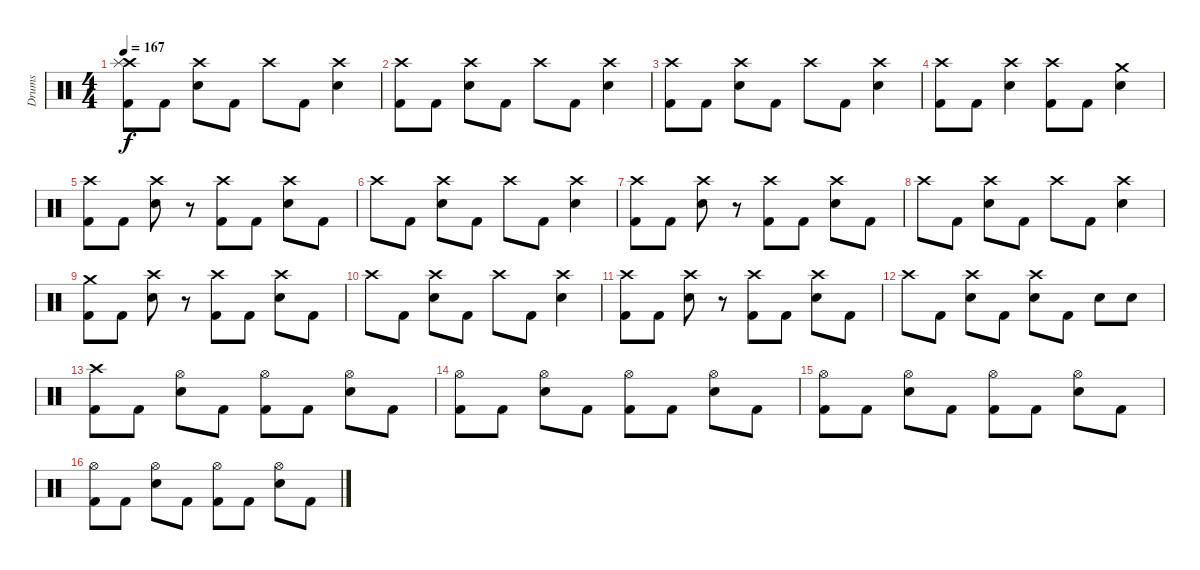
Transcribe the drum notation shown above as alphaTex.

\track ("Drums" "Drums") {instrument percussion}
\staff {score}
\articulation defaults
\ts (4 4)
\tempo 167
\clef neutral
\ks c
("Crash high (hit)" "Splash (hit)" "Kick (hit) 2").8{dy f} "Kick (hit) 2".8 ("Crash high (hit)" "Snare (hit) 2").8 "Kick (hit) 2".8 "Crash high (hit)".8 "Kick (hit) 2".8 ("Crash high (hit)" "Snare (hit) 2").4 |
("Crash high (hit)" "Kick (hit) 2").8 "Kick (hit) 2".8 ("Crash high (hit)" "Snare (hit) 2").8 "Kick (hit) 2".8 "Crash high (hit)".8 "Kick (hit) 2".8 ("Crash high (hit)" "Snare (hit) 2").4 |
("Crash high (hit)" "Kick (hit) 2").8 "Kick (hit) 2".8 ("Crash high (hit)" "Snare (hit) 2").8 "Kick (hit) 2".8 "Crash high (hit)".8 "Kick (hit) 2".8 ("Crash high (hit)" "Snare (hit) 2").4 |
("Crash high (hit)" "Kick (hit) 2").8 "Kick (hit) 2".8 ("Crash high (hit)" "Snare (hit) 2").4 ("Crash high (hit)" "Kick (hit) 2").8 "Kick (hit) 2".8 ("Crash medium (hit)" "Snare (hit) 2").4 |
("Crash high (hit)" "Kick (hit) 2").8 "Kick (hit) 2".8 ("Crash high (hit)" "Snare (hit) 2").8 r.8 ("Crash high (hit)" "Kick (hit) 2").8 "Kick (hit) 2".8 ("Crash high (hit)" "Snare (hit) 2").8 "Kick (hit) 2".8 |
"Crash high (hit)".8 "Kick (hit) 2".8 ("Crash high (hit)" "Snare (hit) 2").8 "Kick (hit) 2".8 "Crash high (hit)".8 "Kick (hit) 2".8 ("Crash high (hit)" "Snare (hit) 2").4 |
("Crash high (hit)" "Kick (hit) 2").8 "Kick (hit) 2".8 ("Crash high (hit)" "Snare (hit) 2").8 r.8 ("Crash high (hit)" "Kick (hit) 2").8 "Kick (hit) 2".8 ("Crash high (hit)" "Snare (hit) 2").8 "Kick (hit) 2".8 |
"Crash high (hit)".8 "Kick (hit) 2".8 ("Crash high (hit)" "Snare (hit) 2").8 "Kick (hit) 2".8 "Crash high (hit)".8 "Kick (hit) 2".8 ("Crash high (hit)" "Snare (hit) 2").4 |
("Crash medium (hit)" "Kick (hit) 2").8 "Kick (hit) 2".8 ("Crash high (hit)" "Snare (hit) 2").8 r.8 ("Crash high (hit)" "Kick (hit) 2").8 "Kick (hit) 2".8 ("Crash high (hit)" "Snare (hit) 2").8 "Kick (hit) 2".8 |
"Crash high (hit)".8 "Kick (hit) 2".8 ("Crash high (hit)" "Snare (hit) 2").8 "Kick (hit) 2".8 "Crash high (hit)".8 "Kick (hit) 2".8 ("Crash high (hit)" "Snare (hit) 2").4 |
("Crash high (hit)" "Kick (hit) 2").8 "Kick (hit) 2".8 ("Crash high (hit)" "Snare (hit) 2").8 r.8 ("Crash high (hit)" "Kick (hit) 2").8 "Kick (hit) 2".8 ("Crash high (hit)" "Snare (hit) 2").8 "Kick (hit) 2".8 |
"Crash high (hit)".8 "Kick (hit) 2".8 ("Crash high (hit)" "Snare (hit) 2").8 "Kick (hit) 2".8 ("Crash high (hit)" "Snare (hit) 2").8 "Kick (hit) 2".8 "Snare (hit) 2".8 "Snare (hit) 2".8 |
("Crash high (hit)" "Kick (hit) 2").8 "Kick (hit) 2".8 ("Hi-Hat (open)" "Snare (hit) 2").8 "Kick (hit) 2".8 ("Hi-Hat (open)" "Kick (hit) 2").8 "Kick (hit) 2".8 ("Hi-Hat (open)" "Snare (hit) 2").8 "Kick (hit) 2".8 |
("Hi-Hat (open)" "Kick (hit) 2").8 "Kick (hit) 2".8 ("Hi-Hat (open)" "Snare (hit) 2").8 "Kick (hit) 2".8 ("Hi-Hat (open)" "Kick (hit) 2").8 "Kick (hit) 2".8 ("Hi-Hat (open)" "Snare (hit) 2").8 "Kick (hit) 2".8 |
("Hi-Hat (open)" "Kick (hit) 2").8 "Kick (hit) 2".8 ("Hi-Hat (open)" "Snare (hit) 2").8 "Kick (hit) 2".8 ("Hi-Hat (open)" "Kick (hit) 2").8 "Kick (hit) 2".8 ("Hi-Hat (open)" "Snare (hit) 2").8 "Kick (hit) 2".8 |
("Hi-Hat (open)" "Kick (hit) 2").8 "Kick (hit) 2".8 ("Hi-Hat (open)" "Snare (hit) 2").8 "Kick (hit) 2".8 ("Hi-Hat (open)" "Kick (hit) 2").8 "Kick (hit) 2".8 ("Hi-Hat (open)" "Snare (hit) 2").8 "Kick (hit) 2".8
